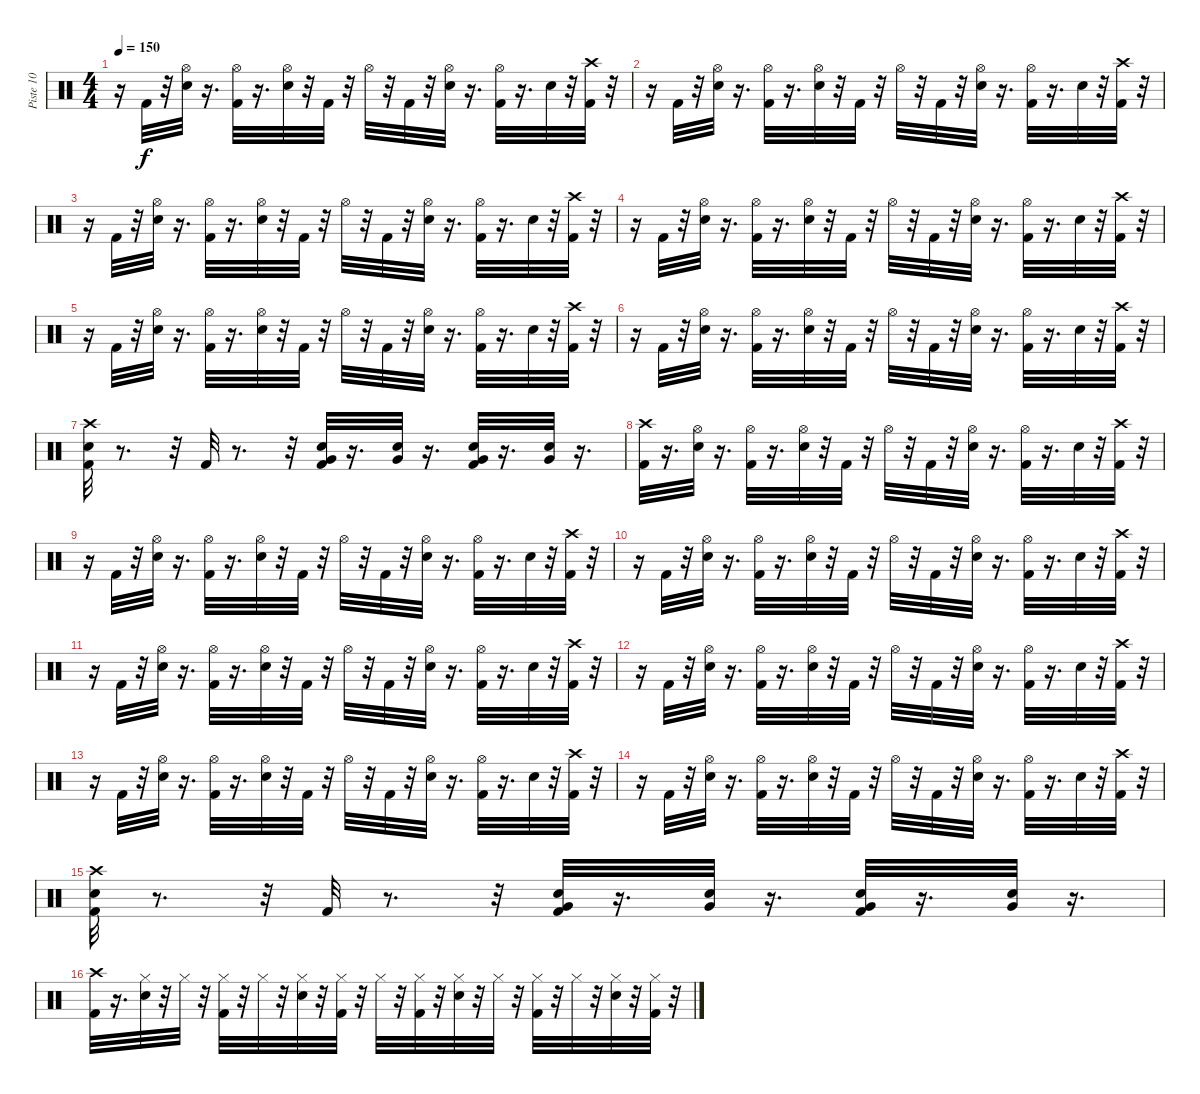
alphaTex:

\track ("Piste 10" "Piste 10") {instrument percussion}
\staff {score}
\articulation defaults
\ts (4 4)
\tempo 150
\clef neutral
\ks c
r.16{dy f} "Kick (hit) 2".32 r.32 ("Hi-Hat (open)" "Snare (hit) 2").32 r.16{d} ("Hi-Hat (open)" "Kick (hit) 2").32 r.16{d} ("Snare (hit) 2" "Hi-Hat (open)").32 r.32 "Kick (hit) 2".32 r.32 "Hi-Hat (open)".32 r.32 "Kick (hit) 2".32 r.32 ("Hi-Hat (open)" "Snare (hit) 2").32 r.16{d} ("Hi-Hat (open)" "Kick (hit) 2").32 r.16{d} "Snare (hit) 2".32 r.32 ("Kick (hit) 2" "Crash high (hit)").32 r.32 |
r.16 "Kick (hit) 2".32 r.32 ("Hi-Hat (open)" "Snare (hit) 2").32 r.16{d} ("Hi-Hat (open)" "Kick (hit) 2").32 r.16{d} ("Snare (hit) 2" "Hi-Hat (open)").32 r.32 "Kick (hit) 2".32 r.32 "Hi-Hat (open)".32 r.32 "Kick (hit) 2".32 r.32 ("Hi-Hat (open)" "Snare (hit) 2").32 r.16{d} ("Hi-Hat (open)" "Kick (hit) 2").32 r.16{d} "Snare (hit) 2".32 r.32 ("Kick (hit) 2" "Crash high (hit)").32 r.32 |
r.16 "Kick (hit) 2".32 r.32 ("Hi-Hat (open)" "Snare (hit) 2").32 r.16{d} ("Hi-Hat (open)" "Kick (hit) 2").32 r.16{d} ("Snare (hit) 2" "Hi-Hat (open)").32 r.32 "Kick (hit) 2".32 r.32 "Hi-Hat (open)".32 r.32 "Kick (hit) 2".32 r.32 ("Hi-Hat (open)" "Snare (hit) 2").32 r.16{d} ("Hi-Hat (open)" "Kick (hit) 2").32 r.16{d} "Snare (hit) 2".32 r.32 ("Kick (hit) 2" "Crash high (hit)").32 r.32 |
r.16 "Kick (hit) 2".32 r.32 ("Hi-Hat (open)" "Snare (hit) 2").32 r.16{d} ("Hi-Hat (open)" "Kick (hit) 2").32 r.16{d} ("Snare (hit) 2" "Hi-Hat (open)").32 r.32 "Kick (hit) 2".32 r.32 "Hi-Hat (open)".32 r.32 "Kick (hit) 2".32 r.32 ("Hi-Hat (open)" "Snare (hit) 2").32 r.16{d} ("Hi-Hat (open)" "Kick (hit) 2").32 r.16{d} "Snare (hit) 2".32 r.32 ("Kick (hit) 2" "Crash high (hit)").32 r.32 |
r.16 "Kick (hit) 2".32 r.32 ("Hi-Hat (open)" "Snare (hit) 2").32 r.16{d} ("Hi-Hat (open)" "Kick (hit) 2").32 r.16{d} ("Snare (hit) 2" "Hi-Hat (open)").32 r.32 "Kick (hit) 2".32 r.32 "Hi-Hat (open)".32 r.32 "Kick (hit) 2".32 r.32 ("Hi-Hat (open)" "Snare (hit) 2").32 r.16{d} ("Hi-Hat (open)" "Kick (hit) 2").32 r.16{d} "Snare (hit) 2".32 r.32 ("Kick (hit) 2" "Crash high (hit)").32 r.32 |
r.16 "Kick (hit) 2".32 r.32 ("Hi-Hat (open)" "Snare (hit) 2").32 r.16{d} ("Hi-Hat (open)" "Kick (hit) 2").32 r.16{d} ("Snare (hit) 2" "Hi-Hat (open)").32 r.32 "Kick (hit) 2".32 r.32 "Hi-Hat (open)".32 r.32 "Kick (hit) 2".32 r.32 ("Hi-Hat (open)" "Snare (hit) 2").32 r.16{d} ("Hi-Hat (open)" "Kick (hit) 2").32 r.16{d} "Snare (hit) 2".32 r.32 ("Kick (hit) 2" "Crash high (hit)").32 r.32 |
("Snare (hit) 2" "Crash high (hit)" "Kick (hit) 2").32 r.8{d} r.32 "Kick (hit) 2".32 r.8{d} r.32 ("Kick (hit) 2" "Very Low Tom (hit)" "Snare (hit) 2").32 r.16{d} ("Very Low Tom (hit)" "Snare (hit) 2").32 r.16{d} ("Kick (hit) 2" "Very Low Tom (hit)" "Snare (hit) 2").32 r.16{d} ("Very Low Tom (hit)" "Snare (hit) 2").32 r.16{d} |
("Crash high (hit)" "Kick (hit) 2").32 r.16{d} ("Hi-Hat (open)" "Snare (hit) 2").32 r.16{d} ("Hi-Hat (open)" "Kick (hit) 2").32 r.16{d} ("Hi-Hat (open)" "Snare (hit) 2").32 r.32 "Kick (hit) 2".32 r.32 "Hi-Hat (open)".32 r.32 "Kick (hit) 2".32 r.32 ("Hi-Hat (open)" "Snare (hit) 2").32 r.16{d} ("Hi-Hat (open)" "Kick (hit) 2").32 r.16{d} "Snare (hit) 2".32 r.32 ("Kick (hit) 2" "Crash high (hit)").32 r.32 |
r.16 "Kick (hit) 2".32 r.32 ("Hi-Hat (open)" "Snare (hit) 2").32 r.16{d} ("Hi-Hat (open)" "Kick (hit) 2").32 r.16{d} ("Snare (hit) 2" "Hi-Hat (open)").32 r.32 "Kick (hit) 2".32 r.32 "Hi-Hat (open)".32 r.32 "Kick (hit) 2".32 r.32 ("Hi-Hat (open)" "Snare (hit) 2").32 r.16{d} ("Hi-Hat (open)" "Kick (hit) 2").32 r.16{d} "Snare (hit) 2".32 r.32 ("Kick (hit) 2" "Crash high (hit)").32 r.32 |
r.16 "Kick (hit) 2".32 r.32 ("Hi-Hat (open)" "Snare (hit) 2").32 r.16{d} ("Hi-Hat (open)" "Kick (hit) 2").32 r.16{d} ("Snare (hit) 2" "Hi-Hat (open)").32 r.32 "Kick (hit) 2".32 r.32 "Hi-Hat (open)".32 r.32 "Kick (hit) 2".32 r.32 ("Hi-Hat (open)" "Snare (hit) 2").32 r.16{d} ("Hi-Hat (open)" "Kick (hit) 2").32 r.16{d} "Snare (hit) 2".32 r.32 ("Kick (hit) 2" "Crash high (hit)").32 r.32 |
r.16 "Kick (hit) 2".32 r.32 ("Hi-Hat (open)" "Snare (hit) 2").32 r.16{d} ("Hi-Hat (open)" "Kick (hit) 2").32 r.16{d} ("Snare (hit) 2" "Hi-Hat (open)").32 r.32 "Kick (hit) 2".32 r.32 "Hi-Hat (open)".32 r.32 "Kick (hit) 2".32 r.32 ("Hi-Hat (open)" "Snare (hit) 2").32 r.16{d} ("Hi-Hat (open)" "Kick (hit) 2").32 r.16{d} "Snare (hit) 2".32 r.32 ("Kick (hit) 2" "Crash high (hit)").32 r.32 |
r.16 "Kick (hit) 2".32 r.32 ("Hi-Hat (open)" "Snare (hit) 2").32 r.16{d} ("Hi-Hat (open)" "Kick (hit) 2").32 r.16{d} ("Snare (hit) 2" "Hi-Hat (open)").32 r.32 "Kick (hit) 2".32 r.32 "Hi-Hat (open)".32 r.32 "Kick (hit) 2".32 r.32 ("Hi-Hat (open)" "Snare (hit) 2").32 r.16{d} ("Hi-Hat (open)" "Kick (hit) 2").32 r.16{d} "Snare (hit) 2".32 r.32 ("Kick (hit) 2" "Crash high (hit)").32 r.32 |
r.16 "Kick (hit) 2".32 r.32 ("Hi-Hat (open)" "Snare (hit) 2").32 r.16{d} ("Hi-Hat (open)" "Kick (hit) 2").32 r.16{d} ("Snare (hit) 2" "Hi-Hat (open)").32 r.32 "Kick (hit) 2".32 r.32 "Hi-Hat (open)".32 r.32 "Kick (hit) 2".32 r.32 ("Hi-Hat (open)" "Snare (hit) 2").32 r.16{d} ("Hi-Hat (open)" "Kick (hit) 2").32 r.16{d} "Snare (hit) 2".32 r.32 ("Kick (hit) 2" "Crash high (hit)").32 r.32 |
r.16 "Kick (hit) 2".32 r.32 ("Hi-Hat (open)" "Snare (hit) 2").32 r.16{d} ("Hi-Hat (open)" "Kick (hit) 2").32 r.16{d} ("Snare (hit) 2" "Hi-Hat (open)").32 r.32 "Kick (hit) 2".32 r.32 "Hi-Hat (open)".32 r.32 "Kick (hit) 2".32 r.32 ("Hi-Hat (open)" "Snare (hit) 2").32 r.16{d} ("Hi-Hat (open)" "Kick (hit) 2").32 r.16{d} "Snare (hit) 2".32 r.32 ("Kick (hit) 2" "Crash high (hit)").32 r.32 |
("Snare (hit) 2" "Crash high (hit)" "Kick (hit) 2").32 r.8{d} r.32 "Kick (hit) 2".32 r.8{d} r.32 ("Kick (hit) 2" "Very Low Tom (hit)" "Snare (hit) 2").32 r.16{d} ("Very Low Tom (hit)" "Snare (hit) 2").32 r.16{d} ("Kick (hit) 2" "Very Low Tom (hit)" "Snare (hit) 2").32 r.16{d} ("Very Low Tom (hit)" "Snare (hit) 2").32 r.16{d} |
("Crash high (hit)" "Kick (hit) 2").32 r.16{d} ("Snare (hit) 2" "Hi-Hat (closed)").32 r.32 "Hi-Hat (closed)".32 r.32 ("Kick (hit) 2" "Hi-Hat (closed)").32 r.32 "Hi-Hat (closed)".32 r.32 ("Hi-Hat (closed)" "Snare (hit) 2").32 r.32 ("Kick (hit) 2" "Hi-Hat (closed)").32 r.32 "Hi-Hat (closed)".32 r.32 ("Kick (hit) 2" "Hi-Hat (closed)").32 r.32 ("Snare (hit) 2" "Hi-Hat (closed)").32 r.32 "Hi-Hat (closed)".32 r.32 ("Kick (hit) 2" "Hi-Hat (closed)").32 r.32 "Hi-Hat (closed)".32 r.32 ("Hi-Hat (closed)" "Snare (hit) 2").32 r.32 ("Kick (hit) 2" "Hi-Hat (closed)").32 r.32
